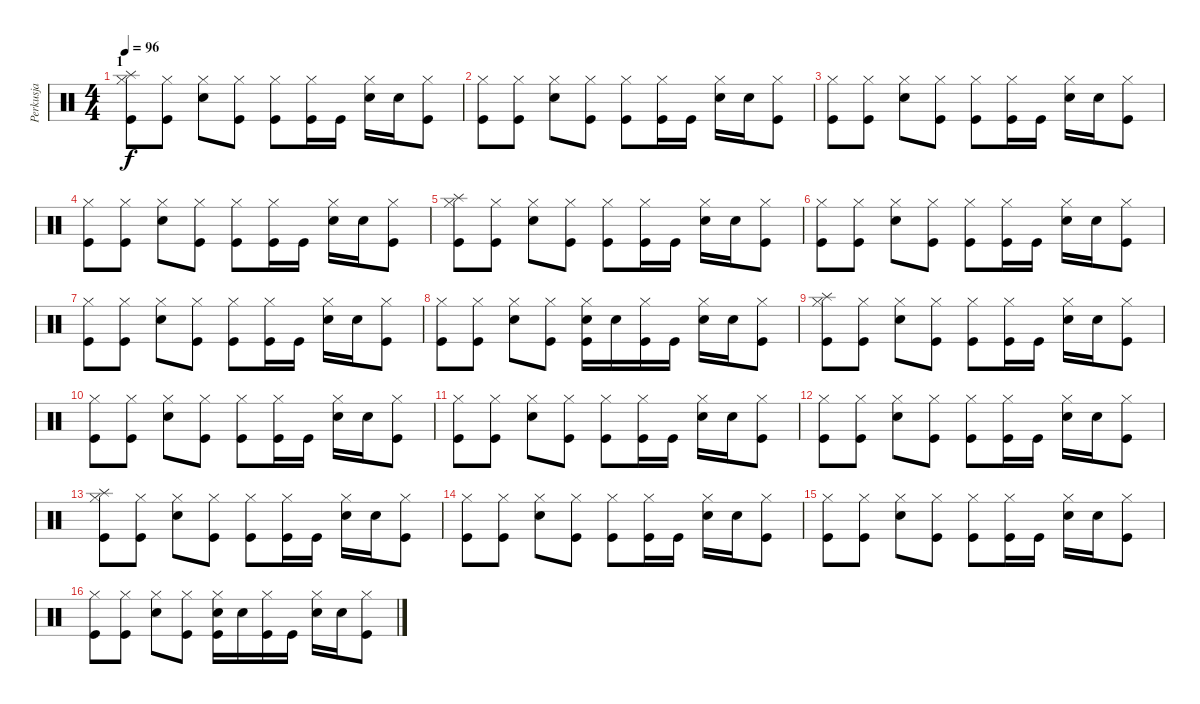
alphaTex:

\track ("Perkusja" "Perkusja") {instrument percussion}
\staff {score}
\articulation defaults
\ts (4 4)
\section ("" "1")
\tempo 96
\clef neutral
\ks c
("Splash (hit)" "Hi-Hat (closed)" "Kick (hit)").8{dy f} ("Hi-Hat (closed)" "Kick (hit)").8 ("Electric Snare (hit)" "Hi-Hat (closed)").8 ("Hi-Hat (closed)" "Kick (hit)").8 ("Hi-Hat (closed)" "Kick (hit)").8 ("Hi-Hat (closed)" "Kick (hit)").16 "Kick (hit)".16 ("Electric Snare (hit)" "Hi-Hat (closed)").16 "Electric Snare (hit)".16 ("Hi-Hat (closed)" "Kick (hit)").8 |
("Hi-Hat (closed)" "Kick (hit)").8 ("Hi-Hat (closed)" "Kick (hit)").8 ("Electric Snare (hit)" "Hi-Hat (closed)").8 ("Hi-Hat (closed)" "Kick (hit)").8 ("Hi-Hat (closed)" "Kick (hit)").8 ("Hi-Hat (closed)" "Kick (hit)").16 "Kick (hit)".16 ("Electric Snare (hit)" "Hi-Hat (closed)").16 "Electric Snare (hit)".16 ("Hi-Hat (closed)" "Kick (hit)").8 |
("Hi-Hat (closed)" "Kick (hit)").8 ("Hi-Hat (closed)" "Kick (hit)").8 ("Electric Snare (hit)" "Hi-Hat (closed)").8 ("Hi-Hat (closed)" "Kick (hit)").8 ("Hi-Hat (closed)" "Kick (hit)").8 ("Hi-Hat (closed)" "Kick (hit)").16 "Kick (hit)".16 ("Electric Snare (hit)" "Hi-Hat (closed)").16 "Electric Snare (hit)".16 ("Hi-Hat (closed)" "Kick (hit)").8 |
("Hi-Hat (closed)" "Kick (hit)").8 ("Hi-Hat (closed)" "Kick (hit)").8 ("Electric Snare (hit)" "Hi-Hat (closed)").8 ("Hi-Hat (closed)" "Kick (hit)").8 ("Hi-Hat (closed)" "Kick (hit)").8 ("Hi-Hat (closed)" "Kick (hit)").16 "Kick (hit)".16 ("Electric Snare (hit)" "Hi-Hat (closed)").16 "Electric Snare (hit)".16 ("Hi-Hat (closed)" "Kick (hit)").8 |
("Splash (hit)" "Hi-Hat (closed)" "Kick (hit)").8 ("Hi-Hat (closed)" "Kick (hit)").8 ("Electric Snare (hit)" "Hi-Hat (closed)").8 ("Hi-Hat (closed)" "Kick (hit)").8 ("Hi-Hat (closed)" "Kick (hit)").8 ("Hi-Hat (closed)" "Kick (hit)").16 "Kick (hit)".16 ("Electric Snare (hit)" "Hi-Hat (closed)").16 "Electric Snare (hit)".16 ("Hi-Hat (closed)" "Kick (hit)").8 |
("Hi-Hat (closed)" "Kick (hit)").8 ("Hi-Hat (closed)" "Kick (hit)").8 ("Electric Snare (hit)" "Hi-Hat (closed)").8 ("Hi-Hat (closed)" "Kick (hit)").8 ("Hi-Hat (closed)" "Kick (hit)").8 ("Hi-Hat (closed)" "Kick (hit)").16 "Kick (hit)".16 ("Electric Snare (hit)" "Hi-Hat (closed)").16 "Electric Snare (hit)".16 ("Hi-Hat (closed)" "Kick (hit)").8 |
("Hi-Hat (closed)" "Kick (hit)").8 ("Hi-Hat (closed)" "Kick (hit)").8 ("Electric Snare (hit)" "Hi-Hat (closed)").8 ("Hi-Hat (closed)" "Kick (hit)").8 ("Hi-Hat (closed)" "Kick (hit)").8 ("Hi-Hat (closed)" "Kick (hit)").16 "Kick (hit)".16 ("Electric Snare (hit)" "Hi-Hat (closed)").16 "Electric Snare (hit)".16 ("Hi-Hat (closed)" "Kick (hit)").8 |
("Hi-Hat (closed)" "Kick (hit)").8 ("Hi-Hat (closed)" "Kick (hit)").8 ("Electric Snare (hit)" "Hi-Hat (closed)").8 ("Hi-Hat (closed)" "Kick (hit)").8 ("Electric Snare (hit)" "Hi-Hat (closed)" "Kick (hit)").16 "Electric Snare (hit)".16 ("Hi-Hat (closed)" "Kick (hit)").16 "Kick (hit)".16 ("Electric Snare (hit)" "Hi-Hat (closed)").16 "Electric Snare (hit)".16 ("Hi-Hat (closed)" "Kick (hit)").8 |
("Splash (hit)" "Hi-Hat (closed)" "Kick (hit)").8 ("Hi-Hat (closed)" "Kick (hit)").8 ("Electric Snare (hit)" "Hi-Hat (closed)").8 ("Hi-Hat (closed)" "Kick (hit)").8 ("Hi-Hat (closed)" "Kick (hit)").8 ("Hi-Hat (closed)" "Kick (hit)").16 "Kick (hit)".16 ("Electric Snare (hit)" "Hi-Hat (closed)").16 "Electric Snare (hit)".16 ("Hi-Hat (closed)" "Kick (hit)").8 |
("Hi-Hat (closed)" "Kick (hit)").8 ("Hi-Hat (closed)" "Kick (hit)").8 ("Electric Snare (hit)" "Hi-Hat (closed)").8 ("Hi-Hat (closed)" "Kick (hit)").8 ("Hi-Hat (closed)" "Kick (hit)").8 ("Hi-Hat (closed)" "Kick (hit)").16 "Kick (hit)".16 ("Electric Snare (hit)" "Hi-Hat (closed)").16 "Electric Snare (hit)".16 ("Hi-Hat (closed)" "Kick (hit)").8 |
("Hi-Hat (closed)" "Kick (hit)").8 ("Hi-Hat (closed)" "Kick (hit)").8 ("Electric Snare (hit)" "Hi-Hat (closed)").8 ("Hi-Hat (closed)" "Kick (hit)").8 ("Hi-Hat (closed)" "Kick (hit)").8 ("Hi-Hat (closed)" "Kick (hit)").16 "Kick (hit)".16 ("Electric Snare (hit)" "Hi-Hat (closed)").16 "Electric Snare (hit)".16 ("Hi-Hat (closed)" "Kick (hit)").8 |
("Hi-Hat (closed)" "Kick (hit)").8 ("Hi-Hat (closed)" "Kick (hit)").8 ("Electric Snare (hit)" "Hi-Hat (closed)").8 ("Hi-Hat (closed)" "Kick (hit)").8 ("Hi-Hat (closed)" "Kick (hit)").8 ("Hi-Hat (closed)" "Kick (hit)").16 "Kick (hit)".16 ("Electric Snare (hit)" "Hi-Hat (closed)").16 "Electric Snare (hit)".16 ("Hi-Hat (closed)" "Kick (hit)").8 |
("Splash (hit)" "Hi-Hat (closed)" "Kick (hit)").8 ("Hi-Hat (closed)" "Kick (hit)").8 ("Electric Snare (hit)" "Hi-Hat (closed)").8 ("Hi-Hat (closed)" "Kick (hit)").8 ("Hi-Hat (closed)" "Kick (hit)").8 ("Hi-Hat (closed)" "Kick (hit)").16 "Kick (hit)".16 ("Electric Snare (hit)" "Hi-Hat (closed)").16 "Electric Snare (hit)".16 ("Hi-Hat (closed)" "Kick (hit)").8 |
("Hi-Hat (closed)" "Kick (hit)").8 ("Hi-Hat (closed)" "Kick (hit)").8 ("Electric Snare (hit)" "Hi-Hat (closed)").8 ("Hi-Hat (closed)" "Kick (hit)").8 ("Hi-Hat (closed)" "Kick (hit)").8 ("Hi-Hat (closed)" "Kick (hit)").16 "Kick (hit)".16 ("Electric Snare (hit)" "Hi-Hat (closed)").16 "Electric Snare (hit)".16 ("Hi-Hat (closed)" "Kick (hit)").8 |
("Hi-Hat (closed)" "Kick (hit)").8 ("Hi-Hat (closed)" "Kick (hit)").8 ("Electric Snare (hit)" "Hi-Hat (closed)").8 ("Hi-Hat (closed)" "Kick (hit)").8 ("Hi-Hat (closed)" "Kick (hit)").8 ("Hi-Hat (closed)" "Kick (hit)").16 "Kick (hit)".16 ("Electric Snare (hit)" "Hi-Hat (closed)").16 "Electric Snare (hit)".16 ("Hi-Hat (closed)" "Kick (hit)").8 |
("Hi-Hat (closed)" "Kick (hit)").8 ("Hi-Hat (closed)" "Kick (hit)").8 ("Electric Snare (hit)" "Hi-Hat (closed)").8 ("Hi-Hat (closed)" "Kick (hit)").8 ("Electric Snare (hit)" "Hi-Hat (closed)" "Kick (hit)").16 "Electric Snare (hit)".16 ("Hi-Hat (closed)" "Kick (hit)").16 "Kick (hit)".16 ("Electric Snare (hit)" "Hi-Hat (closed)").16 "Electric Snare (hit)".16 ("Hi-Hat (closed)" "Kick (hit)").8
